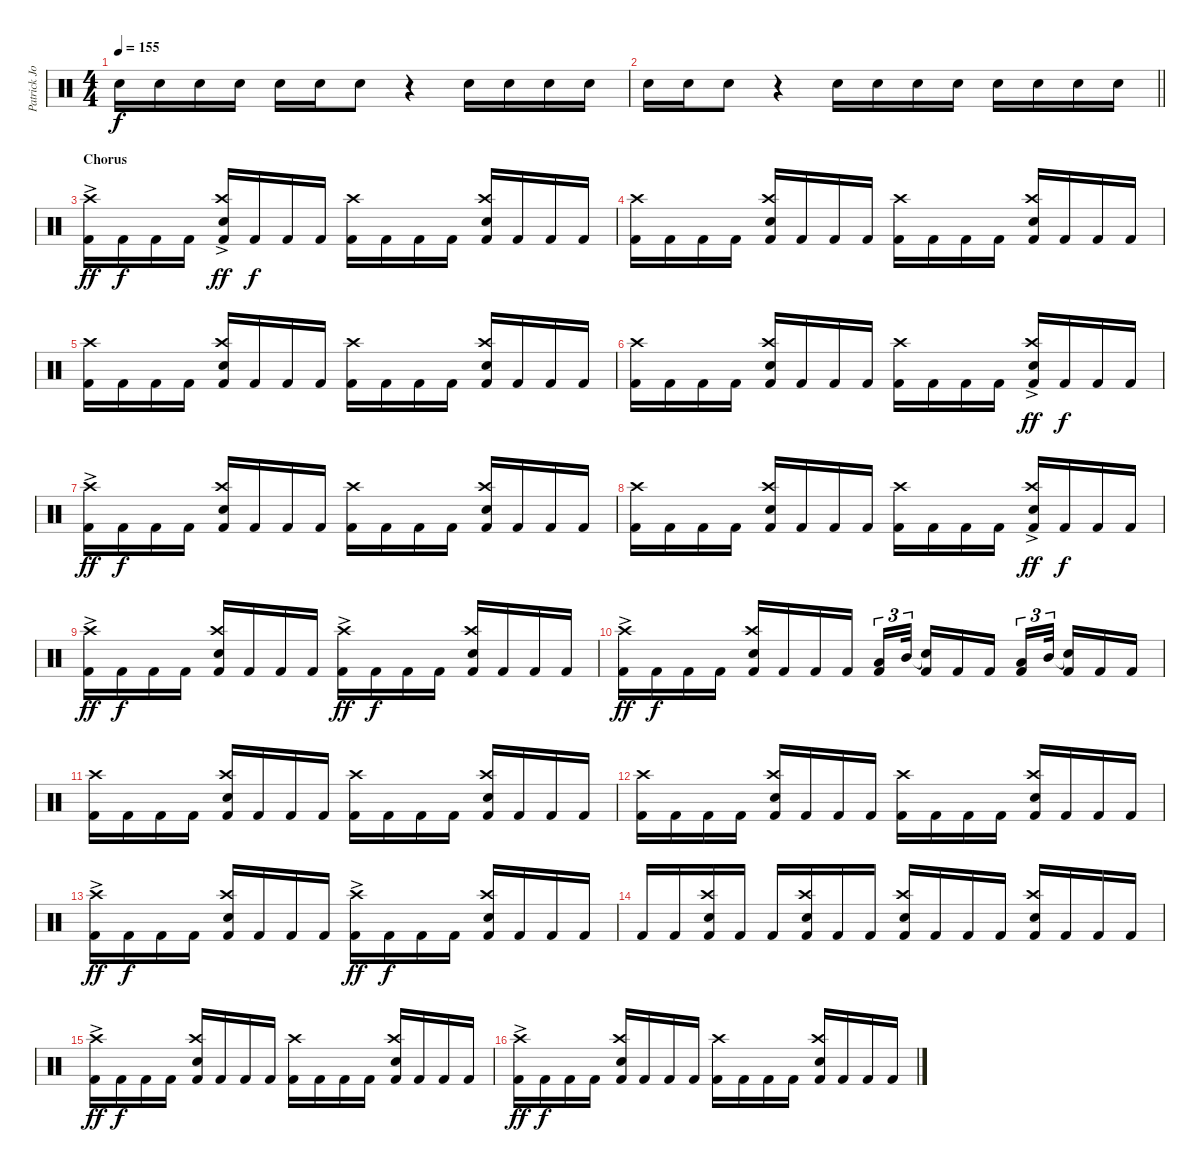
\track ("Patrick Johansson" "Patrick Jo") {instrument percussion}
\staff {score}
\articulation defaults
\ts (4 4)
\tempo 155
\clef neutral
\ks c "Electric Snare (hit)".16{dy f} "Electric Snare (hit)".16 "Electric Snare (hit)".16 "Electric Snare (hit)".16 "Electric Snare (hit)".16 "Electric Snare (hit)".16 "Electric Snare (hit)".8
r.4 "Electric Snare (hit)".16 "Electric Snare (hit)".16 "Electric Snare (hit)".16 "Electric Snare (hit)".16 |
\barLineRight lightlight "Electric Snare (hit)".16 "Electric Snare (hit)".16 "Electric Snare (hit)".8
r.4 "Electric Snare (hit)".16 "Electric Snare (hit)".16 "Electric Snare (hit)".16 "Electric Snare (hit)".16 "Electric Snare (hit)".16 "Electric Snare (hit)".16 "Electric Snare (hit)".16 "Electric Snare (hit)".16 |
\section ("" "Chorus")
("Crash high (hit)"{ac} "Kick (hit) 2").16{dy ff} "Kick (hit) 2".16{dy f} "Kick (hit) 2".16 "Kick (hit) 2".16 ("Crash high (hit)"{ac} "Electric Snare (hit)" "Kick (hit) 2").16{dy ff} "Kick (hit) 2".16{dy f} "Kick (hit) 2".16 "Kick (hit) 2".16 ("Crash high (hit)" "Kick (hit) 2").16 "Kick (hit) 2".16 "Kick (hit) 2".16 "Kick (hit) 2".16 ("Crash high (hit)" "Electric Snare (hit)" "Kick (hit) 2").16 "Kick (hit) 2".16 "Kick (hit) 2".16 "Kick (hit) 2".16 |
("Crash high (hit)" "Kick (hit) 2").16 "Kick (hit) 2".16 "Kick (hit) 2".16 "Kick (hit) 2".16 ("Crash high (hit)" "Electric Snare (hit)" "Kick (hit) 2").16 "Kick (hit) 2".16 "Kick (hit) 2".16 "Kick (hit) 2".16 ("Crash high (hit)" "Kick (hit) 2").16 "Kick (hit) 2".16 "Kick (hit) 2".16 "Kick (hit) 2".16 ("Crash high (hit)" "Electric Snare (hit)" "Kick (hit) 2").16 "Kick (hit) 2".16 "Kick (hit) 2".16 "Kick (hit) 2".16 |
("Crash high (hit)" "Kick (hit) 2").16 "Kick (hit) 2".16 "Kick (hit) 2".16 "Kick (hit) 2".16 ("Crash high (hit)" "Electric Snare (hit)" "Kick (hit) 2").16 "Kick (hit) 2".16 "Kick (hit) 2".16 "Kick (hit) 2".16 ("Crash high (hit)" "Kick (hit) 2").16 "Kick (hit) 2".16 "Kick (hit) 2".16 "Kick (hit) 2".16 ("Crash high (hit)" "Electric Snare (hit)" "Kick (hit) 2").16 "Kick (hit) 2".16 "Kick (hit) 2".16 "Kick (hit) 2".16 |
("Crash high (hit)" "Kick (hit) 2").16 "Kick (hit) 2".16 "Kick (hit) 2".16 "Kick (hit) 2".16 ("Crash high (hit)" "Electric Snare (hit)" "Kick (hit) 2").16 "Kick (hit) 2".16 "Kick (hit) 2".16 "Kick (hit) 2".16 ("Crash high (hit)" "Kick (hit) 2").16 "Kick (hit) 2".16 "Kick (hit) 2".16 "Kick (hit) 2".16 ("Crash high (hit)"{ac} "Electric Snare (hit)" "Kick (hit) 2").16{dy ff} "Kick (hit) 2".16{dy f} "Kick (hit) 2".16 "Kick (hit) 2".16 |
("Crash high (hit)"{ac} "Kick (hit) 2").16{dy ff} "Kick (hit) 2".16{dy f} "Kick (hit) 2".16 "Kick (hit) 2".16 ("Crash high (hit)" "Electric Snare (hit)" "Kick (hit) 2").16 "Kick (hit) 2".16 "Kick (hit) 2".16 "Kick (hit) 2".16 ("Crash high (hit)" "Kick (hit) 2").16 "Kick (hit) 2".16 "Kick (hit) 2".16 "Kick (hit) 2".16 ("Crash high (hit)" "Electric Snare (hit)" "Kick (hit) 2").16 "Kick (hit) 2".16 "Kick (hit) 2".16 "Kick (hit) 2".16 |
("Crash high (hit)" "Kick (hit) 2").16 "Kick (hit) 2".16 "Kick (hit) 2".16 "Kick (hit) 2".16 ("Crash high (hit)" "Electric Snare (hit)" "Kick (hit) 2").16 "Kick (hit) 2".16 "Kick (hit) 2".16 "Kick (hit) 2".16 ("Crash high (hit)" "Kick (hit) 2").16 "Kick (hit) 2".16 "Kick (hit) 2".16 "Kick (hit) 2".16 ("Crash high (hit)"{ac} "Electric Snare (hit)" "Kick (hit) 2").16{dy ff} "Kick (hit) 2".16{dy f} "Kick (hit) 2".16 "Kick (hit) 2".16 |
("Crash high (hit)"{ac} "Kick (hit) 2").16{dy ff} "Kick (hit) 2".16{dy f} "Kick (hit) 2".16 "Kick (hit) 2".16 ("Crash high (hit)" "Electric Snare (hit)" "Kick (hit) 2").16 "Kick (hit) 2".16 "Kick (hit) 2".16 "Kick (hit) 2".16 ("Crash high (hit)"{ac} "Kick (hit) 2").16{dy ff} "Kick (hit) 2".16{dy f} "Kick (hit) 2".16 "Kick (hit) 2".16 ("Crash high (hit)" "Electric Snare (hit)" "Kick (hit) 2").16 "Kick (hit) 2".16 "Kick (hit) 2".16 "Kick (hit) 2".16 |
("Crash high (hit)"{ac} "Kick (hit) 2").16{dy ff} "Kick (hit) 2".16{dy f} "Kick (hit) 2".16 "Kick (hit) 2".16 ("Crash high (hit)" "Electric Snare (hit)" "Kick (hit) 2").16 "Kick (hit) 2".16 "Kick (hit) 2".16 "Kick (hit) 2".16 ("Low Tom (hit)" "Kick (hit) 2").16{tu (3 2)} "Mid Tom (hit)".32{tu (3 2) beam splitsecondary} ("Snare (hit)"{t} "Kick (hit) 2").16 "Kick (hit) 2".16 "Kick (hit) 2".16 ("Low Tom (hit)" "Kick (hit) 2").16{tu (3 2)} "Mid Tom (hit)".32{tu (3 2) beam splitsecondary} ("Snare (hit)"{t} "Kick (hit) 2").16 "Kick (hit) 2".16 "Kick (hit) 2".16 |
("Crash high (hit)" "Kick (hit) 2").16 "Kick (hit) 2".16 "Kick (hit) 2".16 "Kick (hit) 2".16 ("Crash high (hit)" "Electric Snare (hit)" "Kick (hit) 2").16 "Kick (hit) 2".16 "Kick (hit) 2".16 "Kick (hit) 2".16 ("Crash high (hit)" "Kick (hit) 2").16 "Kick (hit) 2".16 "Kick (hit) 2".16 "Kick (hit) 2".16 ("Crash high (hit)" "Electric Snare (hit)" "Kick (hit) 2").16 "Kick (hit) 2".16 "Kick (hit) 2".16 "Kick (hit) 2".16 |
("Crash high (hit)" "Kick (hit) 2").16 "Kick (hit) 2".16 "Kick (hit) 2".16 "Kick (hit) 2".16 ("Crash high (hit)" "Electric Snare (hit)" "Kick (hit) 2").16 "Kick (hit) 2".16 "Kick (hit) 2".16 "Kick (hit) 2".16 ("Crash high (hit)" "Kick (hit) 2").16 "Kick (hit) 2".16 "Kick (hit) 2".16 "Kick (hit) 2".16 ("Crash high (hit)" "Electric Snare (hit)" "Kick (hit) 2").16 "Kick (hit) 2".16 "Kick (hit) 2".16 "Kick (hit) 2".16 |
("Crash high (hit)"{ac} "Kick (hit) 2").16{dy ff} "Kick (hit) 2".16{dy f} "Kick (hit) 2".16 "Kick (hit) 2".16 ("Crash high (hit)" "Electric Snare (hit)" "Kick (hit) 2").16 "Kick (hit) 2".16 "Kick (hit) 2".16 "Kick (hit) 2".16 ("Crash high (hit)"{ac} "Kick (hit) 2").16{dy ff} "Kick (hit) 2".16{dy f} "Kick (hit) 2".16 "Kick (hit) 2".16 ("Crash high (hit)" "Electric Snare (hit)" "Kick (hit) 2").16 "Kick (hit) 2".16 "Kick (hit) 2".16 "Kick (hit) 2".16 |
"Kick (hit) 2".16 "Kick (hit) 2".16 ("Crash high (hit)" "Electric Snare (hit)" "Kick (hit) 2").16 "Kick (hit) 2".16 "Kick (hit) 2".16 ("Crash high (hit)" "Electric Snare (hit)" "Kick (hit) 2").16 "Kick (hit) 2".16 "Kick (hit) 2".16 ("Crash high (hit)" "Electric Snare (hit)" "Kick (hit) 2").16 "Kick (hit) 2".16 "Kick (hit) 2".16 "Kick (hit) 2".16 ("Crash high (hit)" "Electric Snare (hit)" "Kick (hit) 2").16 "Kick (hit) 2".16 "Kick (hit) 2".16 "Kick (hit) 2".16 |
("Crash high (hit)"{ac} "Kick (hit) 2").16{dy ff} "Kick (hit) 2".16{dy f} "Kick (hit) 2".16 "Kick (hit) 2".16 ("Crash high (hit)" "Electric Snare (hit)" "Kick (hit) 2").16 "Kick (hit) 2".16 "Kick (hit) 2".16 "Kick (hit) 2".16 ("Crash high (hit)" "Kick (hit) 2").16 "Kick (hit) 2".16 "Kick (hit) 2".16 "Kick (hit) 2".16 ("Crash high (hit)" "Electric Snare (hit)" "Kick (hit) 2").16 "Kick (hit) 2".16 "Kick (hit) 2".16 "Kick (hit) 2".16 |
("Crash high (hit)"{ac} "Kick (hit) 2").16{dy ff} "Kick (hit) 2".16{dy f} "Kick (hit) 2".16 "Kick (hit) 2".16 ("Crash high (hit)" "Electric Snare (hit)" "Kick (hit) 2").16 "Kick (hit) 2".16 "Kick (hit) 2".16 "Kick (hit) 2".16 ("Crash high (hit)" "Kick (hit) 2").16 "Kick (hit) 2".16 "Kick (hit) 2".16 "Kick (hit) 2".16 ("Crash high (hit)" "Electric Snare (hit)" "Kick (hit) 2").16 "Kick (hit) 2".16 "Kick (hit) 2".16 "Kick (hit) 2".16
